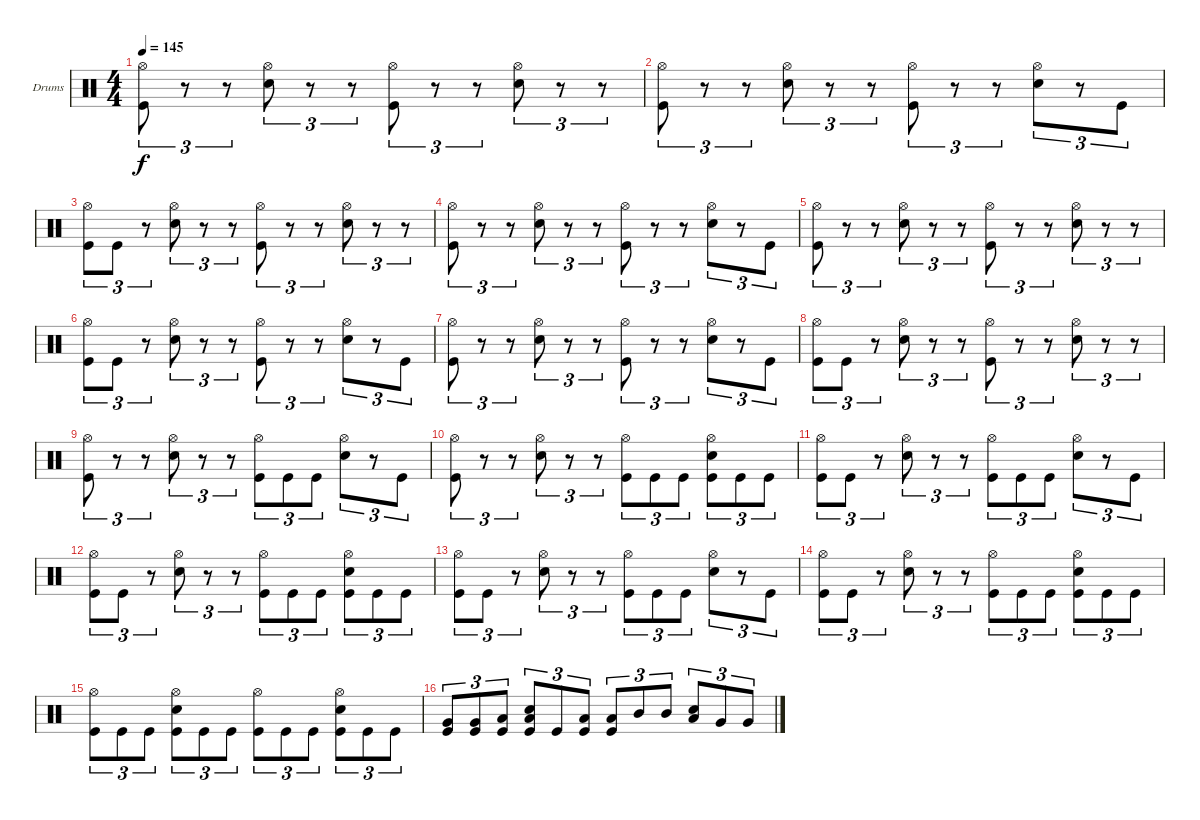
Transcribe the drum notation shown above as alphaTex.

\bracketExtendMode groupsimilarinstruments
\firstSystemTrackNameOrientation horizontal
\otherSystemsTrackNameOrientation horizontal
\track ("FREDRIK ANDERSSON" "Drums") {instrument percussion}
\staff {score}
\articulation defaults
\ts (4 4)
\tempo 145
\clef neutral
\ks c
("Hi-Hat (open)" "Kick (hit)").8{tu (3 2) dy f} r.8{tu (3 2)} r.8{tu (3 2)} ("Hi-Hat (open)" "Snare (hit) 2").8{tu (3 2)} r.8{tu (3 2)} r.8{tu (3 2)} ("Hi-Hat (open)" "Kick (hit)").8{tu (3 2)} r.8{tu (3 2)} r.8{tu (3 2)} ("Hi-Hat (open)" "Snare (hit) 2").8{tu (3 2)} r.8{tu (3 2)} r.8{tu (3 2)} |
("Hi-Hat (open)" "Kick (hit)").8{tu (3 2)} r.8{tu (3 2)} r.8{tu (3 2)} ("Hi-Hat (open)" "Snare (hit) 2").8{tu (3 2)} r.8{tu (3 2)} r.8{tu (3 2)} ("Hi-Hat (open)" "Kick (hit)").8{tu (3 2)} r.8{tu (3 2)} r.8{tu (3 2)} ("Hi-Hat (open)" "Snare (hit) 2").8{tu (3 2)} r.8{tu (3 2)} "Kick (hit)".8{tu (3 2)} |
("Hi-Hat (open)" "Kick (hit)").8{tu (3 2)} "Kick (hit)".8{tu (3 2)} r.8{tu (3 2)} ("Hi-Hat (open)" "Snare (hit) 2").8{tu (3 2)} r.8{tu (3 2)} r.8{tu (3 2)} ("Hi-Hat (open)" "Kick (hit)").8{tu (3 2)} r.8{tu (3 2)} r.8{tu (3 2)} ("Hi-Hat (open)" "Snare (hit) 2").8{tu (3 2)} r.8{tu (3 2)} r.8{tu (3 2)} |
("Hi-Hat (open)" "Kick (hit)").8{tu (3 2)} r.8{tu (3 2)} r.8{tu (3 2)} ("Hi-Hat (open)" "Snare (hit) 2").8{tu (3 2)} r.8{tu (3 2)} r.8{tu (3 2)} ("Hi-Hat (open)" "Kick (hit)").8{tu (3 2)} r.8{tu (3 2)} r.8{tu (3 2)} ("Hi-Hat (open)" "Snare (hit) 2").8{tu (3 2)} r.8{tu (3 2)} "Kick (hit)".8{tu (3 2)} |
("Hi-Hat (open)" "Kick (hit)").8{tu (3 2)} r.8{tu (3 2)} r.8{tu (3 2)} ("Hi-Hat (open)" "Snare (hit) 2").8{tu (3 2)} r.8{tu (3 2)} r.8{tu (3 2)} ("Hi-Hat (open)" "Kick (hit)").8{tu (3 2)} r.8{tu (3 2)} r.8{tu (3 2)} ("Hi-Hat (open)" "Snare (hit) 2").8{tu (3 2)} r.8{tu (3 2)} r.8{tu (3 2)} |
("Hi-Hat (open)" "Kick (hit)").8{tu (3 2)} "Kick (hit)".8{tu (3 2)} r.8{tu (3 2)} ("Hi-Hat (open)" "Snare (hit) 2").8{tu (3 2)} r.8{tu (3 2)} r.8{tu (3 2)} ("Hi-Hat (open)" "Kick (hit)").8{tu (3 2)} r.8{tu (3 2)} r.8{tu (3 2)} ("Hi-Hat (open)" "Snare (hit) 2").8{tu (3 2)} r.8{tu (3 2)} "Kick (hit)".8{tu (3 2)} |
("Hi-Hat (open)" "Kick (hit)").8{tu (3 2)} r.8{tu (3 2)} r.8{tu (3 2)} ("Hi-Hat (open)" "Snare (hit) 2").8{tu (3 2)} r.8{tu (3 2)} r.8{tu (3 2)} ("Hi-Hat (open)" "Kick (hit)").8{tu (3 2)} r.8{tu (3 2)} r.8{tu (3 2)} ("Hi-Hat (open)" "Snare (hit) 2").8{tu (3 2)} r.8{tu (3 2)} "Kick (hit)".8{tu (3 2)} |
("Hi-Hat (open)" "Kick (hit)").8{tu (3 2)} "Kick (hit)".8{tu (3 2)} r.8{tu (3 2)} ("Hi-Hat (open)" "Snare (hit) 2").8{tu (3 2)} r.8{tu (3 2)} r.8{tu (3 2)} ("Hi-Hat (open)" "Kick (hit)").8{tu (3 2)} r.8{tu (3 2)} r.8{tu (3 2)} ("Hi-Hat (open)" "Snare (hit) 2").8{tu (3 2)} r.8{tu (3 2)} r.8{tu (3 2)} |
("Hi-Hat (open)" "Kick (hit)").8{tu (3 2)} r.8{tu (3 2)} r.8{tu (3 2)} ("Hi-Hat (open)" "Snare (hit) 2").8{tu (3 2)} r.8{tu (3 2)} r.8{tu (3 2)} ("Hi-Hat (open)" "Kick (hit)").8{tu (3 2)} "Kick (hit)".8{tu (3 2)} "Kick (hit)".8{tu (3 2)} ("Hi-Hat (open)" "Snare (hit) 2").8{tu (3 2)} r.8{tu (3 2)} "Kick (hit)".8{tu (3 2)} |
("Hi-Hat (open)" "Kick (hit)").8{tu (3 2)} r.8{tu (3 2)} r.8{tu (3 2)} ("Hi-Hat (open)" "Snare (hit) 2").8{tu (3 2)} r.8{tu (3 2)} r.8{tu (3 2)} ("Hi-Hat (open)" "Kick (hit)").8{tu (3 2)} "Kick (hit)".8{tu (3 2)} "Kick (hit)".8{tu (3 2)} ("Hi-Hat (open)" "Snare (hit) 2" "Kick (hit)").8{tu (3 2)} "Kick (hit)".8{tu (3 2)} "Kick (hit)".8{tu (3 2)} |
("Hi-Hat (open)" "Kick (hit)").8{tu (3 2)} "Kick (hit)".8{tu (3 2)} r.8{tu (3 2)} ("Hi-Hat (open)" "Snare (hit) 2").8{tu (3 2)} r.8{tu (3 2)} r.8{tu (3 2)} ("Hi-Hat (open)" "Kick (hit)").8{tu (3 2)} "Kick (hit)".8{tu (3 2)} "Kick (hit)".8{tu (3 2)} ("Hi-Hat (open)" "Snare (hit) 2").8{tu (3 2)} r.8{tu (3 2)} "Kick (hit)".8{tu (3 2)} |
("Hi-Hat (open)" "Kick (hit)").8{tu (3 2)} "Kick (hit)".8{tu (3 2)} r.8{tu (3 2)} ("Hi-Hat (open)" "Snare (hit) 2").8{tu (3 2)} r.8{tu (3 2)} r.8{tu (3 2)} ("Hi-Hat (open)" "Kick (hit)").8{tu (3 2)} "Kick (hit)".8{tu (3 2)} "Kick (hit)".8{tu (3 2)} ("Hi-Hat (open)" "Snare (hit) 2" "Kick (hit)").8{tu (3 2)} "Kick (hit)".8{tu (3 2)} "Kick (hit)".8{tu (3 2)} |
("Hi-Hat (open)" "Kick (hit)").8{tu (3 2)} "Kick (hit)".8{tu (3 2)} r.8{tu (3 2)} ("Hi-Hat (open)" "Snare (hit) 2").8{tu (3 2)} r.8{tu (3 2)} r.8{tu (3 2)} ("Hi-Hat (open)" "Kick (hit)").8{tu (3 2)} "Kick (hit)".8{tu (3 2)} "Kick (hit)".8{tu (3 2)} ("Hi-Hat (open)" "Snare (hit) 2").8{tu (3 2)} r.8{tu (3 2)} "Kick (hit)".8{tu (3 2)} |
("Hi-Hat (open)" "Kick (hit)").8{tu (3 2)} "Kick (hit)".8{tu (3 2)} r.8{tu (3 2)} ("Hi-Hat (open)" "Snare (hit) 2").8{tu (3 2)} r.8{tu (3 2)} r.8{tu (3 2)} ("Hi-Hat (open)" "Kick (hit)").8{tu (3 2)} "Kick (hit)".8{tu (3 2)} "Kick (hit)".8{tu (3 2)} ("Hi-Hat (open)" "Snare (hit) 2" "Kick (hit)").8{tu (3 2)} "Kick (hit)".8{tu (3 2)} "Kick (hit)".8{tu (3 2)} |
("Hi-Hat (open)" "Kick (hit)").8{tu (3 2)} "Kick (hit)".8{tu (3 2)} "Kick (hit)".8{tu (3 2)} ("Hi-Hat (open)" "Snare (hit) 2" "Kick (hit)").8{tu (3 2)} "Kick (hit)".8{tu (3 2)} "Kick (hit)".8{tu (3 2)} ("Hi-Hat (open)" "Kick (hit)").8{tu (3 2)} "Kick (hit)".8{tu (3 2)} "Kick (hit)".8{tu (3 2)} ("Hi-Hat (open)" "Snare (hit) 2" "Kick (hit)").8{tu (3 2)} "Kick (hit)".8{tu (3 2)} "Kick (hit)".8{tu (3 2)} |
("Kick (hit)" "Very Low Tom (hit)").8{tu (3 2)} ("Kick (hit)" "Very Low Tom (hit)").8{tu (3 2)} ("Kick (hit)" "Low Tom (hit)").8{tu (3 2)} ("Snare (hit) 2" "Kick (hit)" "Low Tom (hit)").8{tu (3 2)} "Kick (hit)".8{tu (3 2)} ("Kick (hit)" "Low Tom (hit)").8{tu (3 2)} ("Kick (hit)" "Low Tom (hit)").8{tu (3 2)} "Mid Tom (hit)".8{tu (3 2)} "Mid Tom (hit)".8{tu (3 2)} ("Snare (hit) 2" "Low Tom (hit)").8{tu (3 2)} "Very Low Tom (hit)".8{tu (3 2)} "Very Low Tom (hit)".8{tu (3 2)}
